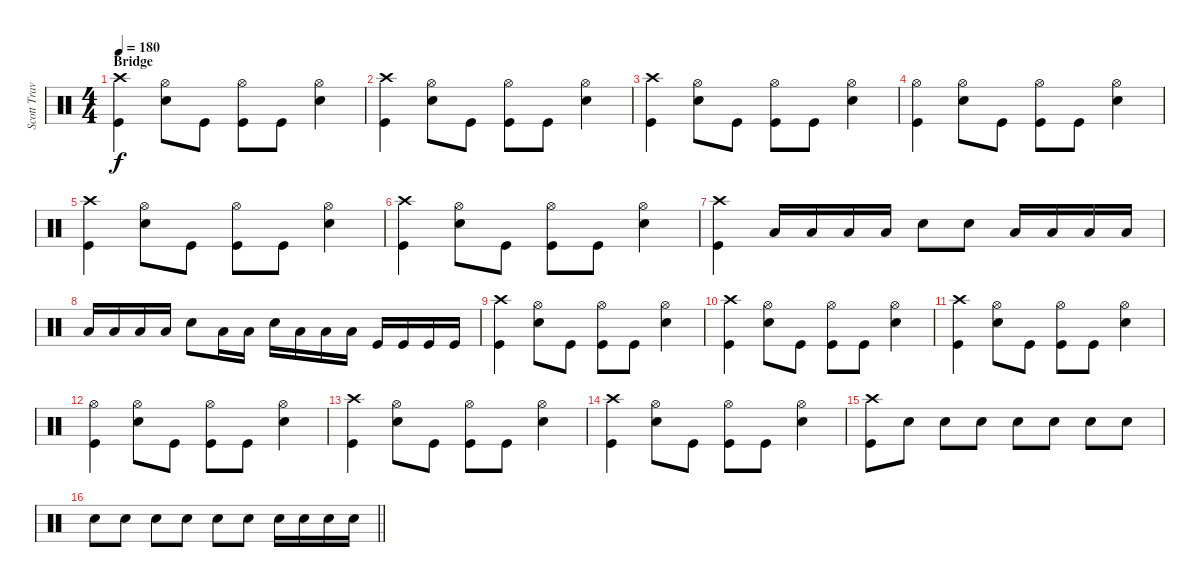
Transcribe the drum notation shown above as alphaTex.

\track ("Scott Travis" "Scott Trav") {instrument percussion}
\staff {score}
\articulation defaults
\ts (4 4)
\section ("" "Bridge")
\tempo 180
\clef neutral
\ks c
("Crash high (hit)" "Kick (hit)").4{dy f} ("Hi-Hat (open)" "Snare (hit) 2").8 "Kick (hit)".8 ("Hi-Hat (open)" "Kick (hit)").8 "Kick (hit)".8 ("Hi-Hat (open)" "Snare (hit) 2").4 |
("Crash high (hit)" "Kick (hit)").4 ("Hi-Hat (open)" "Snare (hit) 2").8 "Kick (hit)".8 ("Hi-Hat (open)" "Kick (hit)").8 "Kick (hit)".8 ("Hi-Hat (open)" "Snare (hit) 2").4 |
("Crash high (hit)" "Kick (hit)").4 ("Hi-Hat (open)" "Snare (hit) 2").8 "Kick (hit)".8 ("Hi-Hat (open)" "Kick (hit)").8 "Kick (hit)".8 ("Hi-Hat (open)" "Snare (hit) 2").4 |
("Hi-Hat (open)" "Kick (hit)").4 ("Hi-Hat (open)" "Snare (hit) 2").8 "Kick (hit)".8 ("Hi-Hat (open)" "Kick (hit)").8 "Kick (hit)".8 ("Hi-Hat (open)" "Snare (hit) 2").4 |
("Crash high (hit)" "Kick (hit)").4 ("Hi-Hat (open)" "Snare (hit) 2").8 "Kick (hit)".8 ("Hi-Hat (open)" "Kick (hit)").8 "Kick (hit)".8 ("Hi-Hat (open)" "Snare (hit) 2").4 |
("Crash high (hit)" "Kick (hit)").4 ("Hi-Hat (open)" "Snare (hit) 2").8 "Kick (hit)".8 ("Hi-Hat (open)" "Kick (hit)").8 "Kick (hit)".8 ("Hi-Hat (open)" "Snare (hit) 2").4 |
("Crash high (hit)" "Kick (hit)").4 "Low Tom (hit)".16 "Low Tom (hit)".16 "Low Tom (hit)".16 "Low Tom (hit)".16 "Snare (hit) 2".8 "Snare (hit) 2".8 "Low Tom (hit)".16 "Low Tom (hit)".16 "Low Tom (hit)".16 "Low Tom (hit)".16 |
"Low Tom (hit)".16 "Low Tom (hit)".16 "Low Tom (hit)".16 "Low Tom (hit)".16 "Snare (hit) 2".8 "Low Tom (hit)".16 "Low Tom (hit)".16 "Snare (hit) 2".16 "Low Tom (hit)".16 "Low Tom (hit)".16 "Low Tom (hit)".16 "Kick (hit)".16 "Kick (hit)".16 "Kick (hit)".16 "Kick (hit)".16 |
("Crash high (hit)" "Kick (hit)").4 ("Hi-Hat (open)" "Snare (hit) 2").8 "Kick (hit)".8 ("Hi-Hat (open)" "Kick (hit)").8 "Kick (hit)".8 ("Hi-Hat (open)" "Snare (hit) 2").4 |
("Crash high (hit)" "Kick (hit)").4 ("Hi-Hat (open)" "Snare (hit) 2").8 "Kick (hit)".8 ("Hi-Hat (open)" "Kick (hit)").8 "Kick (hit)".8 ("Hi-Hat (open)" "Snare (hit) 2").4 |
("Crash high (hit)" "Kick (hit)").4 ("Hi-Hat (open)" "Snare (hit) 2").8 "Kick (hit)".8 ("Hi-Hat (open)" "Kick (hit)").8 "Kick (hit)".8 ("Hi-Hat (open)" "Snare (hit) 2").4 |
("Hi-Hat (open)" "Kick (hit)").4 ("Hi-Hat (open)" "Snare (hit) 2").8 "Kick (hit)".8 ("Hi-Hat (open)" "Kick (hit)").8 "Kick (hit)".8 ("Hi-Hat (open)" "Snare (hit) 2").4 |
("Crash high (hit)" "Kick (hit)").4 ("Hi-Hat (open)" "Snare (hit) 2").8 "Kick (hit)".8 ("Hi-Hat (open)" "Kick (hit)").8 "Kick (hit)".8 ("Hi-Hat (open)" "Snare (hit) 2").4 |
("Crash high (hit)" "Kick (hit)").4 ("Hi-Hat (open)" "Snare (hit) 2").8 "Kick (hit)".8 ("Hi-Hat (open)" "Kick (hit)").8 "Kick (hit)".8 ("Hi-Hat (open)" "Snare (hit) 2").4 |
("Crash high (hit)" "Kick (hit)").8 "Snare (hit) 2".8 "Snare (hit) 2".8 "Snare (hit) 2".8 "Snare (hit) 2".8 "Snare (hit) 2".8 "Snare (hit) 2".8 "Snare (hit) 2".8 |
\barLineRight lightlight "Snare (hit) 2".8 "Snare (hit) 2".8 "Snare (hit) 2".8 "Snare (hit) 2".8 "Snare (hit) 2".8 "Snare (hit) 2".8 "Snare (hit) 2".16 "Snare (hit) 2".16 "Snare (hit) 2".16 "Snare (hit) 2".16
